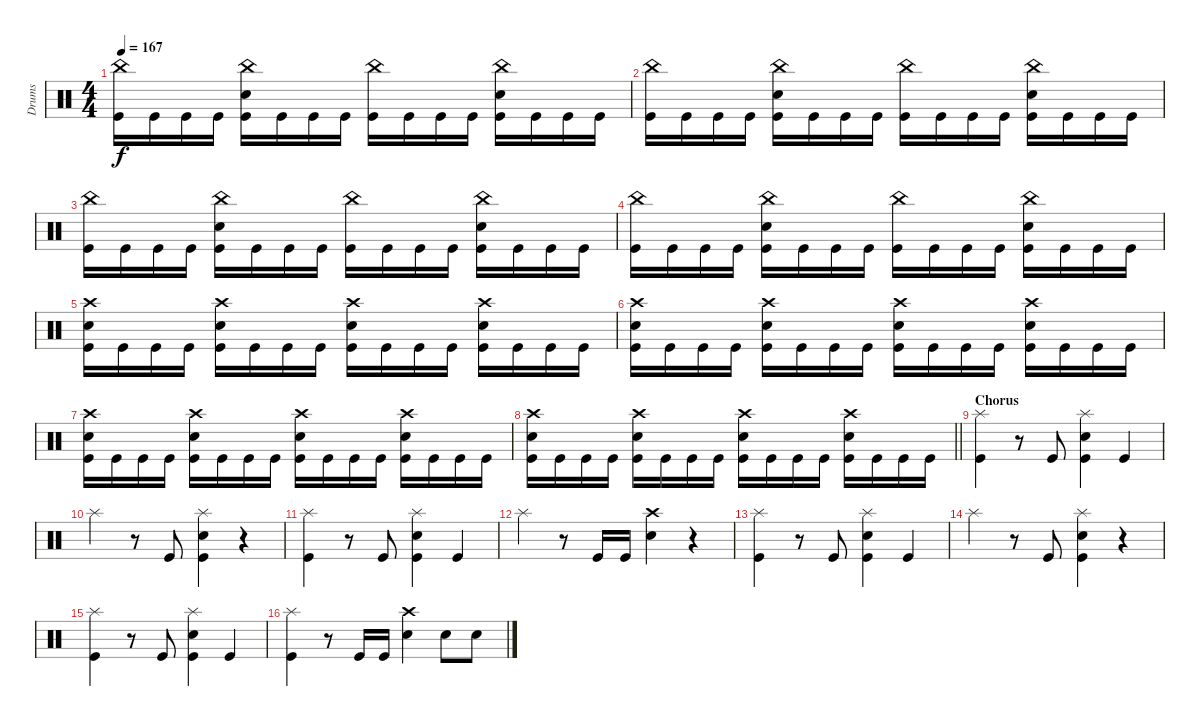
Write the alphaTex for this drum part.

\track ("Drums" "Drums") {instrument percussion}
\staff {score}
\articulation defaults
\ts (4 4)
\tempo 167
\clef neutral
\ks c
("China (hit)" "Kick (hit)").16{dy f} "Kick (hit)".16 "Kick (hit)".16 "Kick (hit)".16 ("China (hit)" "Snare (hit) 2" "Kick (hit)").16 "Kick (hit)".16 "Kick (hit)".16 "Kick (hit)".16 ("China (hit)" "Kick (hit)").16 "Kick (hit)".16 "Kick (hit)".16 "Kick (hit)".16 ("China (hit)" "Snare (hit) 2" "Kick (hit)").16 "Kick (hit)".16 "Kick (hit)".16 "Kick (hit)".16 |
("China (hit)" "Kick (hit)").16 "Kick (hit)".16 "Kick (hit)".16 "Kick (hit)".16 ("China (hit)" "Snare (hit) 2" "Kick (hit)").16 "Kick (hit)".16 "Kick (hit)".16 "Kick (hit)".16 ("China (hit)" "Kick (hit)").16 "Kick (hit)".16 "Kick (hit)".16 "Kick (hit)".16 ("China (hit)" "Snare (hit) 2" "Kick (hit)").16 "Kick (hit)".16 "Kick (hit)".16 "Kick (hit)".16 |
("China (hit)" "Kick (hit)").16 "Kick (hit)".16 "Kick (hit)".16 "Kick (hit)".16 ("China (hit)" "Snare (hit) 2" "Kick (hit)").16 "Kick (hit)".16 "Kick (hit)".16 "Kick (hit)".16 ("China (hit)" "Kick (hit)").16 "Kick (hit)".16 "Kick (hit)".16 "Kick (hit)".16 ("China (hit)" "Snare (hit) 2" "Kick (hit)").16 "Kick (hit)".16 "Kick (hit)".16 "Kick (hit)".16 |
("China (hit)" "Kick (hit)").16 "Kick (hit)".16 "Kick (hit)".16 "Kick (hit)".16 ("China (hit)" "Snare (hit) 2" "Kick (hit)").16 "Kick (hit)".16 "Kick (hit)".16 "Kick (hit)".16 ("China (hit)" "Kick (hit)").16 "Kick (hit)".16 "Kick (hit)".16 "Kick (hit)".16 ("China (hit)" "Snare (hit) 2" "Kick (hit)").16 "Kick (hit)".16 "Kick (hit)".16 "Kick (hit)".16 |
("Crash high (hit)" "Snare (hit) 2" "Kick (hit)").16 "Kick (hit)".16 "Kick (hit)".16 "Kick (hit)".16 ("Crash high (hit)" "Snare (hit) 2" "Kick (hit)").16 "Kick (hit)".16 "Kick (hit)".16 "Kick (hit)".16 ("Crash high (hit)" "Snare (hit) 2" "Kick (hit)").16 "Kick (hit)".16 "Kick (hit)".16 "Kick (hit)".16 ("Crash high (hit)" "Snare (hit) 2" "Kick (hit)").16 "Kick (hit)".16 "Kick (hit)".16 "Kick (hit)".16 |
("Crash high (hit)" "Snare (hit) 2" "Kick (hit)").16 "Kick (hit)".16 "Kick (hit)".16 "Kick (hit)".16 ("Crash high (hit)" "Snare (hit) 2" "Kick (hit)").16 "Kick (hit)".16 "Kick (hit)".16 "Kick (hit)".16 ("Crash high (hit)" "Snare (hit) 2" "Kick (hit)").16 "Kick (hit)".16 "Kick (hit)".16 "Kick (hit)".16 ("Crash high (hit)" "Snare (hit) 2" "Kick (hit)").16 "Kick (hit)".16 "Kick (hit)".16 "Kick (hit)".16 |
("Crash high (hit)" "Snare (hit) 2" "Kick (hit)").16 "Kick (hit)".16 "Kick (hit)".16 "Kick (hit)".16 ("Crash high (hit)" "Snare (hit) 2" "Kick (hit)").16 "Kick (hit)".16 "Kick (hit)".16 "Kick (hit)".16 ("Crash high (hit)" "Snare (hit) 2" "Kick (hit)").16 "Kick (hit)".16 "Kick (hit)".16 "Kick (hit)".16 ("Crash high (hit)" "Snare (hit) 2" "Kick (hit)").16 "Kick (hit)".16 "Kick (hit)".16 "Kick (hit)".16 |
\barLineRight lightlight
("Crash high (hit)" "Snare (hit) 2" "Kick (hit)").16 "Kick (hit)".16 "Kick (hit)".16 "Kick (hit)".16 ("Crash high (hit)" "Snare (hit) 2" "Kick (hit)").16 "Kick (hit)".16 "Kick (hit)".16 "Kick (hit)".16 ("Crash high (hit)" "Snare (hit) 2" "Kick (hit)").16 "Kick (hit)".16 "Kick (hit)".16 "Kick (hit)".16 ("Crash high (hit)" "Snare (hit) 2" "Kick (hit)").16 "Kick (hit)".16 "Kick (hit)".16 "Kick (hit)".16 |
\section ("" "Chorus")
("Splash (hit)" "Kick (hit)").4 r.8 "Kick (hit)".8 ("Splash (hit)" "Snare (hit) 2" "Kick (hit)").4 "Kick (hit)".4 |
"Splash (hit)".4 r.8 "Kick (hit)".8 ("Splash (hit)" "Snare (hit) 2" "Kick (hit)").4 r.4 |
("Splash (hit)" "Kick (hit)").4 r.8 "Kick (hit)".8 ("Splash (hit)" "Snare (hit) 2" "Kick (hit)").4 "Kick (hit)".4 |
"Splash (hit)".4 r.8 "Kick (hit)".16 "Kick (hit)".16 ("Crash high (hit)" "Snare (hit) 2").4 r.4 |
("Splash (hit)" "Kick (hit)").4 r.8 "Kick (hit)".8 ("Splash (hit)" "Snare (hit) 2" "Kick (hit)").4 "Kick (hit)".4 |
"Splash (hit)".4 r.8 "Kick (hit)".8 ("Splash (hit)" "Snare (hit) 2" "Kick (hit)").4 r.4 |
("Splash (hit)" "Kick (hit)").4 r.8 "Kick (hit)".8 ("Splash (hit)" "Snare (hit) 2" "Kick (hit)").4 "Kick (hit)".4 |
("Splash (hit)" "Kick (hit)").4 r.8 "Kick (hit)".16 "Kick (hit)".16 ("Crash high (hit)" "Snare (hit) 2").4 "Snare (hit) 2".8 "Snare (hit) 2".8
